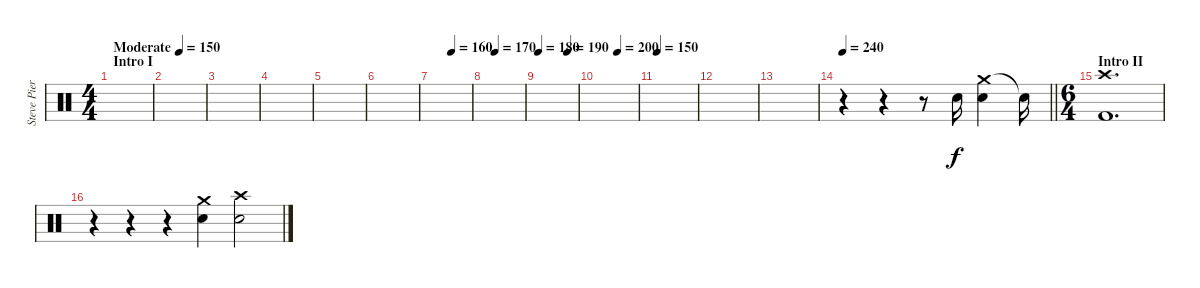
\track ("Steve Pierce" "Steve Pier") {instrument percussion}
\staff {score}
\articulation defaults
\ts (4 4)
\section ("" "Intro I")
\tempo (150 "Moderate")
\clef neutral
\ks c
|
|
|
|
|
|
\tempo (160 0.5)
|
\tempo (170 0.25)
|
\tempo 180
\tempo (190 0.75)
|
\tempo (200 0.5)
|
\tempo 150
|
|
|
\tempo 240
\barLineRight lightlight
r.4 r.4 r.8 "Snare (hit) 2".16 ("Crash medium (hit)" "Snare (hit) 2").4 "Snare (hit)"{t}.16 |
\ts (6 4)
\section ("" "Intro II")
("Crash high (hit)" "Kick (hit) 2").1{d} |
r.4 r.4 r.4 ("Crash medium (hit)" "Snare (hit) 2").4 ("Crash high (hit)" "Snare (hit) 2").2
